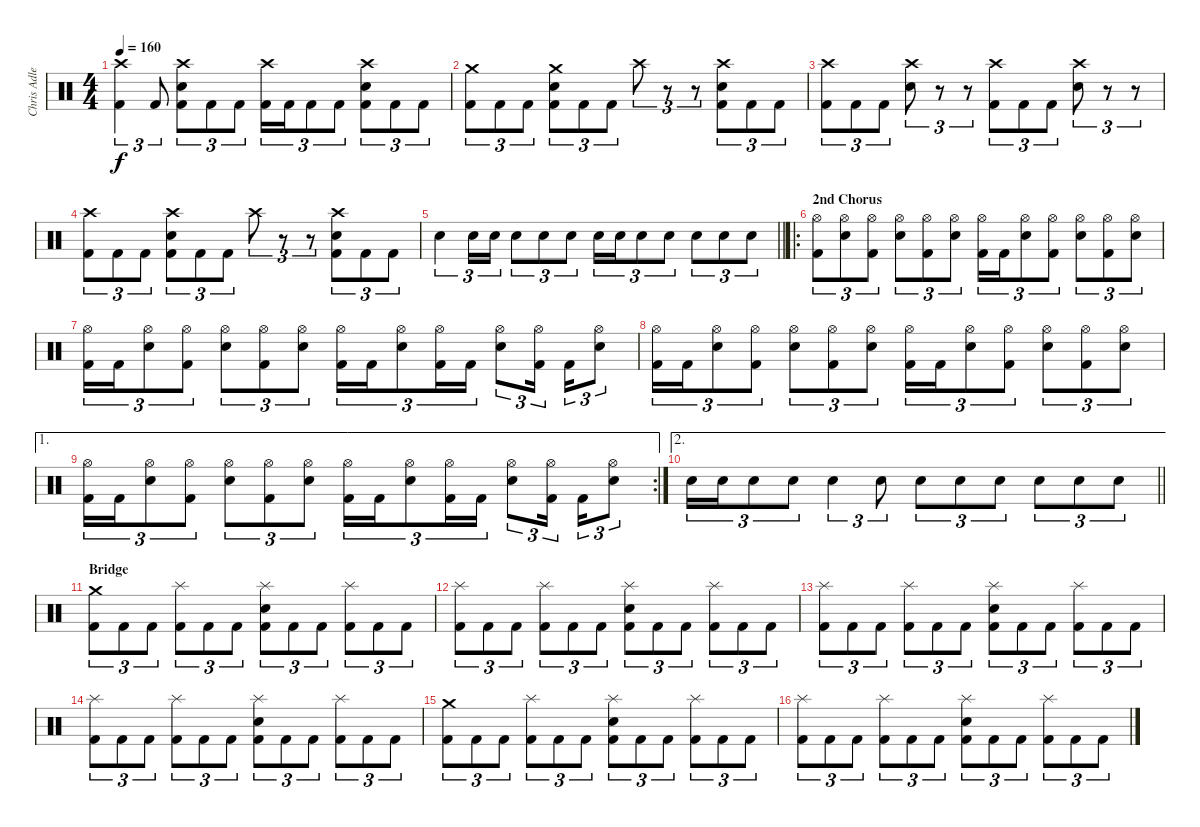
\track ("Chris Adler" "Chris Adle") {instrument percussion}
\staff {score}
\articulation defaults
\ts (4 4)
\tempo 160
\clef neutral
\ks c
("Crash high (hit)" "Kick (hit) 2").4{tu (3 2) dy f} "Kick (hit) 2".8{tu (3 2)} ("Crash high (hit)" "Snare (hit) 2" "Kick (hit) 2").8{tu (3 2)} "Kick (hit) 2".8{tu (3 2)} "Kick (hit) 2".8{tu (3 2)} ("Crash high (hit)" "Kick (hit) 2").16{tu (3 2)} "Kick (hit) 2".16{tu (3 2)} "Kick (hit) 2".8{tu (3 2)} "Kick (hit) 2".8{tu (3 2)} ("Crash high (hit)" "Snare (hit) 2" "Kick (hit) 2").8{tu (3 2)} "Kick (hit) 2".8{tu (3 2)} "Kick (hit) 2".8{tu (3 2)} |
("Crash medium (hit)" "Kick (hit) 2").8{tu (3 2)} "Kick (hit) 2".8{tu (3 2)} "Kick (hit) 2".8{tu (3 2)} ("Crash medium (hit)" "Snare (hit) 2" "Kick (hit) 2").8{tu (3 2)} "Kick (hit) 2".8{tu (3 2)} "Kick (hit) 2".8{tu (3 2)} "Crash high (hit)".8{tu (3 2)} r.8{tu (3 2)} r.8{tu (3 2)} ("Crash high (hit)" "Snare (hit) 2" "Kick (hit) 2").8{tu (3 2)} "Kick (hit) 2".8{tu (3 2)} "Kick (hit) 2".8{tu (3 2)} |
("Crash high (hit)" "Kick (hit) 2").8{tu (3 2)} "Kick (hit) 2".8{tu (3 2)} "Kick (hit) 2".8{tu (3 2)} ("Crash high (hit)" "Snare (hit) 2").8{tu (3 2)} r.8{tu (3 2)} r.8{tu (3 2)} ("Crash high (hit)" "Kick (hit) 2").8{tu (3 2)} "Kick (hit) 2".8{tu (3 2)} "Kick (hit) 2".8{tu (3 2)} ("Crash high (hit)" "Snare (hit) 2").8{tu (3 2)} r.8{tu (3 2)} r.8{tu (3 2)} |
("Crash high (hit)" "Kick (hit) 2").8{tu (3 2)} "Kick (hit) 2".8{tu (3 2)} "Kick (hit) 2".8{tu (3 2)} ("Crash high (hit)" "Snare (hit) 2" "Kick (hit) 2").8{tu (3 2)} "Kick (hit) 2".8{tu (3 2)} "Kick (hit) 2".8{tu (3 2)} "Crash high (hit)".8{tu (3 2)} r.8{tu (3 2)} r.8{tu (3 2)} ("Crash high (hit)" "Snare (hit) 2" "Kick (hit) 2").8{tu (3 2)} "Kick (hit) 2".8{tu (3 2)} "Kick (hit) 2".8{tu (3 2)} |
\barLineRight lightlight "Electric Snare (hit)".4{tu (3 2)} "Electric Snare (hit)".16{tu (3 2)} "Electric Snare (hit)".16{tu (3 2)} "Electric Snare (hit)".8{tu (3 2)} "Electric Snare (hit)".8{tu (3 2)} "Electric Snare (hit)".8{tu (3 2)} "Electric Snare (hit)".16{tu (3 2)} "Electric Snare (hit)".16{tu (3 2)} "Electric Snare (hit)".8{tu (3 2)} "Electric Snare (hit)".8{tu (3 2)} "Electric Snare (hit)".8{tu (3 2)} "Electric Snare (hit)".8{tu (3 2)} "Electric Snare (hit)".8{tu (3 2)}
|
\ro
\section ("" "2nd Chorus")
("Hi-Hat (open)" "Kick (hit) 2").8{tu (3 2)} ("Hi-Hat (open)" "Snare (hit) 2").8{tu (3 2)} ("Hi-Hat (open)" "Kick (hit) 2").8{tu (3 2)} ("Hi-Hat (open)" "Snare (hit) 2").8{tu (3 2)} ("Hi-Hat (open)" "Kick (hit) 2").8{tu (3 2)} ("Hi-Hat (open)" "Snare (hit) 2").8{tu (3 2)} ("Hi-Hat (open)" "Kick (hit) 2").16{tu (3 2)} "Kick (hit) 2".16{tu (3 2)} ("Hi-Hat (open)" "Snare (hit) 2").8{tu (3 2)} ("Hi-Hat (open)" "Kick (hit) 2").8{tu (3 2)} ("Hi-Hat (open)" "Snare (hit) 2").8{tu (3 2)} ("Hi-Hat (open)" "Kick (hit) 2").8{tu (3 2)} ("Hi-Hat (open)" "Snare (hit) 2").8{tu (3 2)} |
("Hi-Hat (open)" "Kick (hit) 2").16{tu (3 2)} "Kick (hit) 2".16{tu (3 2)} ("Hi-Hat (open)" "Snare (hit) 2").8{tu (3 2)} ("Hi-Hat (open)" "Kick (hit) 2").8{tu (3 2)} ("Hi-Hat (open)" "Snare (hit) 2").8{tu (3 2)} ("Hi-Hat (open)" "Kick (hit) 2").8{tu (3 2)} ("Hi-Hat (open)" "Snare (hit) 2").8{tu (3 2)} ("Hi-Hat (open)" "Kick (hit) 2").16{tu (3 2)} "Kick (hit) 2".16{tu (3 2)} ("Hi-Hat (open)" "Snare (hit) 2").8{tu (3 2)} ("Hi-Hat (open)" "Kick (hit) 2").16{tu (3 2)} "Kick (hit) 2".16{tu (3 2)} ("Hi-Hat (open)" "Snare (hit) 2").8{tu (3 2)} ("Hi-Hat (open)" "Kick (hit) 2").16{tu (3 2) beam splitsecondary} "Kick (hit) 2".16{tu (3 2)} ("Hi-Hat (open)" "Snare (hit) 2").8{tu (3 2)} |
("Hi-Hat (open)" "Kick (hit) 2").16{tu (3 2)} "Kick (hit) 2".16{tu (3 2)} ("Hi-Hat (open)" "Snare (hit) 2").8{tu (3 2)} ("Hi-Hat (open)" "Kick (hit) 2").8{tu (3 2)} ("Hi-Hat (open)" "Snare (hit) 2").8{tu (3 2)} ("Hi-Hat (open)" "Kick (hit) 2").8{tu (3 2)} ("Hi-Hat (open)" "Snare (hit) 2").8{tu (3 2)} ("Hi-Hat (open)" "Kick (hit) 2").16{tu (3 2)} "Kick (hit) 2".16{tu (3 2)} ("Hi-Hat (open)" "Snare (hit) 2").8{tu (3 2)} ("Hi-Hat (open)" "Kick (hit) 2").8{tu (3 2)} ("Hi-Hat (open)" "Snare (hit) 2").8{tu (3 2)} ("Hi-Hat (open)" "Kick (hit) 2").8{tu (3 2)} ("Hi-Hat (open)" "Snare (hit) 2").8{tu (3 2)} |
\ae 1
\rc 2
("Hi-Hat (open)" "Kick (hit) 2").16{tu (3 2)} "Kick (hit) 2".16{tu (3 2)} ("Hi-Hat (open)" "Snare (hit) 2").8{tu (3 2)} ("Hi-Hat (open)" "Kick (hit) 2").8{tu (3 2)} ("Hi-Hat (open)" "Snare (hit) 2").8{tu (3 2)} ("Hi-Hat (open)" "Kick (hit) 2").8{tu (3 2)} ("Hi-Hat (open)" "Snare (hit) 2").8{tu (3 2)} ("Hi-Hat (open)" "Kick (hit) 2").16{tu (3 2)} "Kick (hit) 2".16{tu (3 2)} ("Hi-Hat (open)" "Snare (hit) 2").8{tu (3 2)} ("Hi-Hat (open)" "Kick (hit) 2").16{tu (3 2)} "Kick (hit) 2".16{tu (3 2)} ("Hi-Hat (open)" "Snare (hit) 2").8{tu (3 2)} ("Hi-Hat (open)" "Kick (hit) 2").16{tu (3 2) beam splitsecondary} "Kick (hit) 2".16{tu (3 2)} ("Hi-Hat (open)" "Snare (hit) 2").8{tu (3 2)} |
\ae 2
\barLineRight lightlight "Electric Snare (hit)".16{tu (3 2)} "Electric Snare (hit)".16{tu (3 2)} "Electric Snare (hit)".8{tu (3 2)} "Electric Snare (hit)".8{tu (3 2)} "Electric Snare (hit)".4{tu (3 2)} "Electric Snare (hit)".8{tu (3 2)} "Electric Snare (hit)".8{tu (3 2)} "Electric Snare (hit)".8{tu (3 2)} "Electric Snare (hit)".8{tu (3 2)} "Electric Snare (hit)".8{tu (3 2)} "Electric Snare (hit)".8{tu (3 2)} "Electric Snare (hit)".8{tu (3 2)}
|
\section ("" "Bridge")
("Crash medium (hit)" "Kick (hit) 2").8{tu (3 2)} "Kick (hit) 2".8{tu (3 2)} "Kick (hit) 2".8{tu (3 2)} ("Splash (hit)" "Kick (hit) 2").8{tu (3 2)} "Kick (hit) 2".8{tu (3 2)} "Kick (hit) 2".8{tu (3 2)} ("Splash (hit)" "Snare (hit) 2" "Kick (hit) 2").8{tu (3 2)} "Kick (hit) 2".8{tu (3 2)} "Kick (hit) 2".8{tu (3 2)} ("Splash (hit)" "Kick (hit) 2").8{tu (3 2)} "Kick (hit) 2".8{tu (3 2)} "Kick (hit) 2".8{tu (3 2)} |
("Splash (hit)" "Kick (hit) 2").8{tu (3 2)} "Kick (hit) 2".8{tu (3 2)} "Kick (hit) 2".8{tu (3 2)} ("Splash (hit)" "Kick (hit) 2").8{tu (3 2)} "Kick (hit) 2".8{tu (3 2)} "Kick (hit) 2".8{tu (3 2)} ("Splash (hit)" "Snare (hit) 2" "Kick (hit) 2").8{tu (3 2)} "Kick (hit) 2".8{tu (3 2)} "Kick (hit) 2".8{tu (3 2)} ("Splash (hit)" "Kick (hit) 2").8{tu (3 2)} "Kick (hit) 2".8{tu (3 2)} "Kick (hit) 2".8{tu (3 2)} |
("Splash (hit)" "Kick (hit) 2").8{tu (3 2)} "Kick (hit) 2".8{tu (3 2)} "Kick (hit) 2".8{tu (3 2)} ("Splash (hit)" "Kick (hit) 2").8{tu (3 2)} "Kick (hit) 2".8{tu (3 2)} "Kick (hit) 2".8{tu (3 2)} ("Splash (hit)" "Snare (hit) 2" "Kick (hit) 2").8{tu (3 2)} "Kick (hit) 2".8{tu (3 2)} "Kick (hit) 2".8{tu (3 2)} ("Splash (hit)" "Kick (hit) 2").8{tu (3 2)} "Kick (hit) 2".8{tu (3 2)} "Kick (hit) 2".8{tu (3 2)} |
("Splash (hit)" "Kick (hit) 2").8{tu (3 2)} "Kick (hit) 2".8{tu (3 2)} "Kick (hit) 2".8{tu (3 2)} ("Splash (hit)" "Kick (hit) 2").8{tu (3 2)} "Kick (hit) 2".8{tu (3 2)} "Kick (hit) 2".8{tu (3 2)} ("Splash (hit)" "Snare (hit) 2" "Kick (hit) 2").8{tu (3 2)} "Kick (hit) 2".8{tu (3 2)} "Kick (hit) 2".8{tu (3 2)} ("Splash (hit)" "Kick (hit) 2").8{tu (3 2)} "Kick (hit) 2".8{tu (3 2)} "Kick (hit) 2".8{tu (3 2)} |
("Crash medium (hit)" "Kick (hit) 2").8{tu (3 2)} "Kick (hit) 2".8{tu (3 2)} "Kick (hit) 2".8{tu (3 2)} ("Splash (hit)" "Kick (hit) 2").8{tu (3 2)} "Kick (hit) 2".8{tu (3 2)} "Kick (hit) 2".8{tu (3 2)} ("Splash (hit)" "Snare (hit) 2" "Kick (hit) 2").8{tu (3 2)} "Kick (hit) 2".8{tu (3 2)} "Kick (hit) 2".8{tu (3 2)} ("Splash (hit)" "Kick (hit) 2").8{tu (3 2)} "Kick (hit) 2".8{tu (3 2)} "Kick (hit) 2".8{tu (3 2)} |
("Splash (hit)" "Kick (hit) 2").8{tu (3 2)} "Kick (hit) 2".8{tu (3 2)} "Kick (hit) 2".8{tu (3 2)} ("Splash (hit)" "Kick (hit) 2").8{tu (3 2)} "Kick (hit) 2".8{tu (3 2)} "Kick (hit) 2".8{tu (3 2)} ("Splash (hit)" "Snare (hit) 2" "Kick (hit) 2").8{tu (3 2)} "Kick (hit) 2".8{tu (3 2)} "Kick (hit) 2".8{tu (3 2)} ("Splash (hit)" "Kick (hit) 2").8{tu (3 2)} "Kick (hit) 2".8{tu (3 2)} "Kick (hit) 2".8{tu (3 2)}
